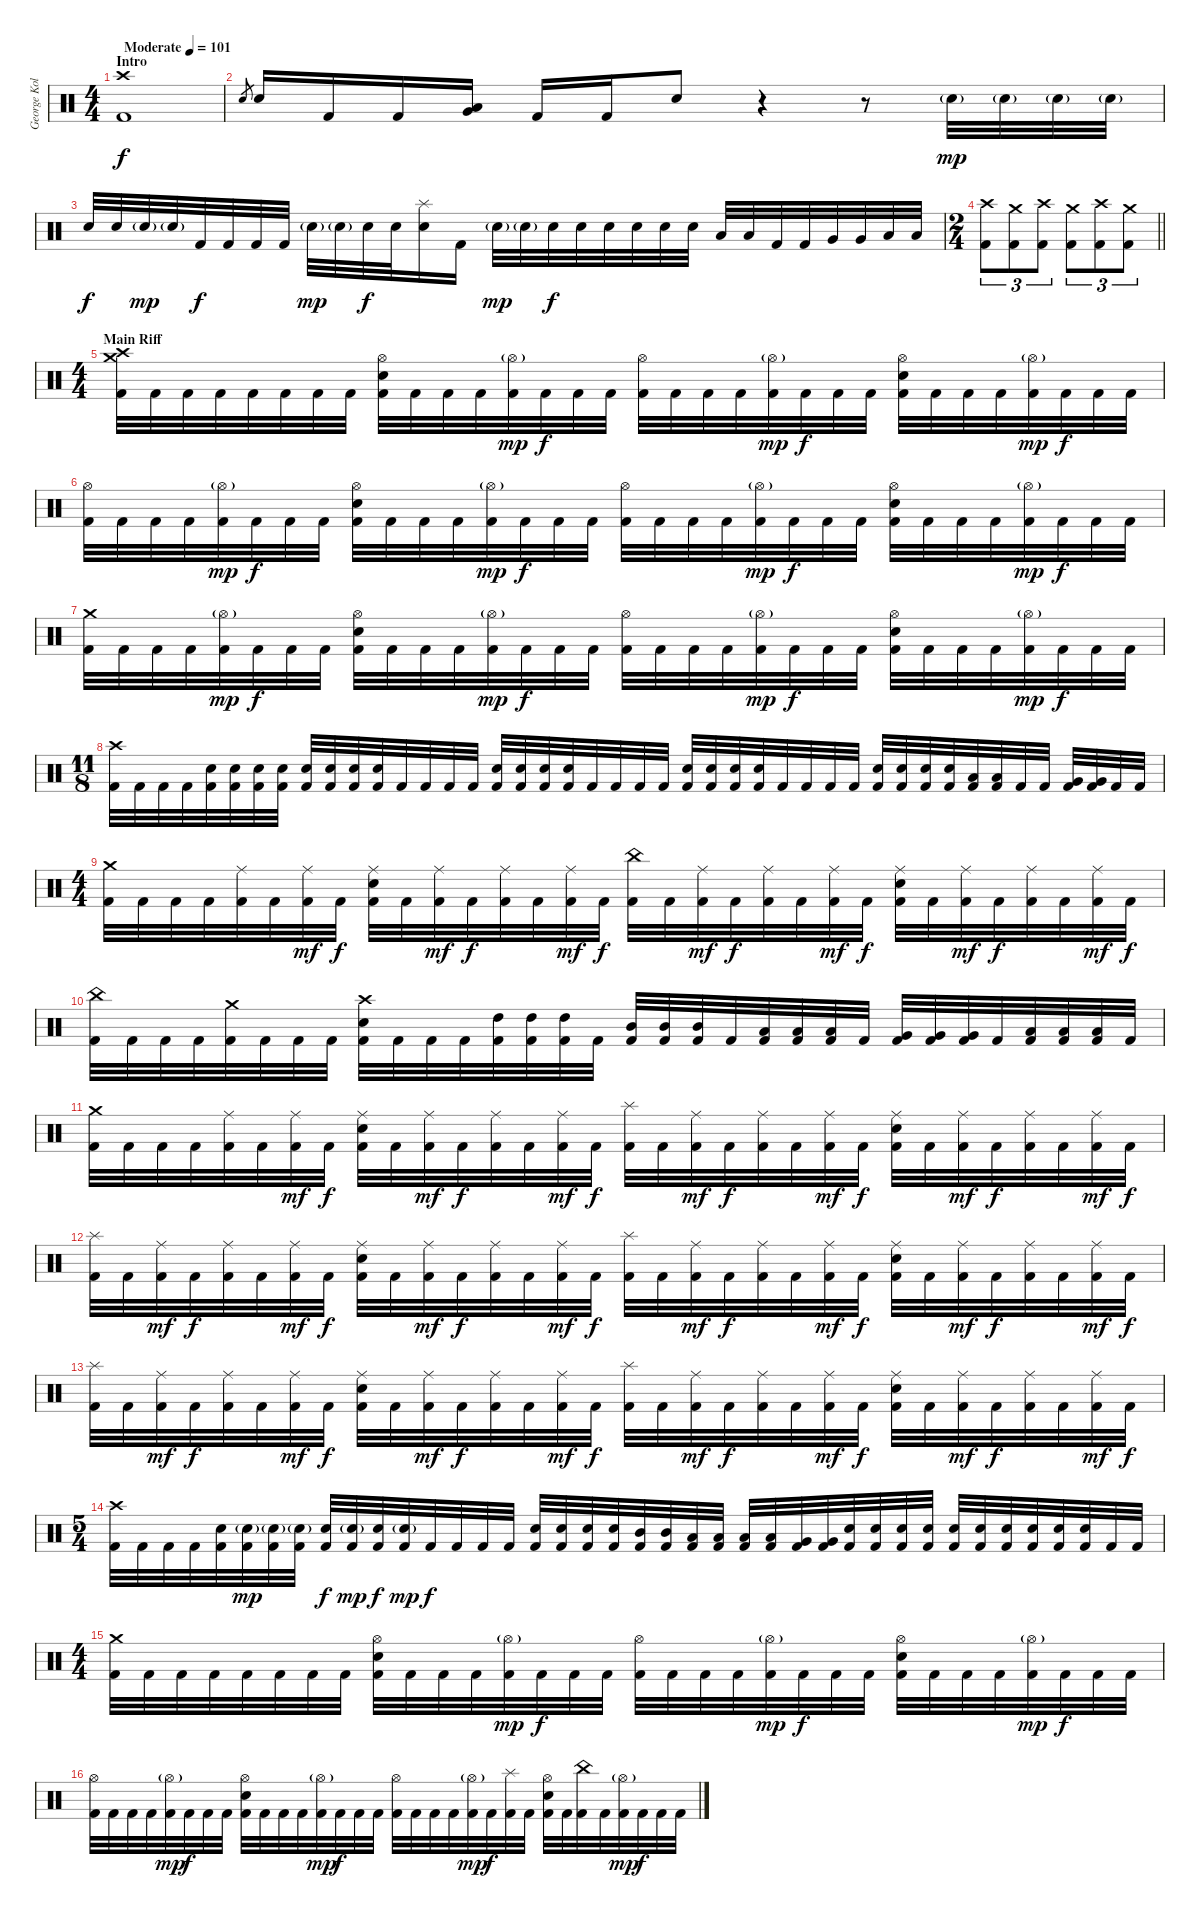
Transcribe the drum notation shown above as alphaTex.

\track ("George Kollias" "George Kol") {instrument percussion}
\staff {score}
\articulation defaults
\ts (4 4)
\section ("" "Intro")
\tempo (101 "Moderate")
\clef neutral
\ks c
("Crash high (hit)" "Kick (hit) 2").1{dy f} |
"Electric Snare (hit)".8{gr} "Electric Snare (hit)".16 "Kick (hit) 2".16 "Kick (hit) 2".16 ("Very Low Tom (hit)" "Low Floor Tom (hit)").16 "Kick (hit) 2".16 "Kick (hit) 2".16 "Electric Snare (hit)".8 r.4 r.8 "Electric Snare (hit)"{g}.32{dy mp} "Electric Snare (hit)"{g}.32 "Electric Snare (hit)"{g}.32 "Electric Snare (hit)"{g}.32 |
"Electric Snare (hit)".32{dy f} "Electric Snare (hit)".32 "Electric Snare (hit)"{g}.32{dy mp} "Electric Snare (hit)"{g}.32 "Kick (hit) 2".32{dy f} "Kick (hit) 2".32 "Kick (hit) 2".32 "Kick (hit) 2".32 "Electric Snare (hit)"{g}.32{dy mp} "Electric Snare (hit)"{g}.32 "Electric Snare (hit)".32{dy f} "Electric Snare (hit)".32 ("Splash (hit)" "Electric Snare (hit)").16 "Kick (hit) 2".16 "Electric Snare (hit)"{g}.32{dy mp} "Electric Snare (hit)"{g}.32 "Electric Snare (hit)".32{dy f} "Electric Snare (hit)".32 "Electric Snare (hit)".32 "Electric Snare (hit)".32 "Electric Snare (hit)".32 "Electric Snare (hit)".32 "Low Tom (hit)".32 "Low Tom (hit)".32 "Kick (hit) 2".32 "Kick (hit) 2".32 "Very Low Tom (hit)".32 "Very Low Tom (hit)".32 "Low Floor Tom (hit)".32 "Low Floor Tom (hit)".32 |
\ts (2 4)
\barLineRight lightlight
("Crash high (hit)" "Kick (hit) 2").8{tu (3 2)} ("Crash medium (hit)" "Kick (hit) 2").8{tu (3 2)} ("Crash high (hit)" "Kick (hit) 2").8{tu (3 2)} ("Crash medium (hit)" "Kick (hit) 2").8{tu (3 2)} ("Crash high (hit)" "Kick (hit) 2").8{tu (3 2)} ("Crash medium (hit)" "Kick (hit) 2").8{tu (3 2)} |
\ts (4 4)
\section ("" "Main Riff")
("Crash medium (hit)" "Crash high (hit)" "Kick (hit) 2").32 "Kick (hit) 2".32 "Kick (hit) 2".32 "Kick (hit) 2".32 "Kick (hit) 2".32 "Kick (hit) 2".32 "Kick (hit) 2".32 "Kick (hit) 2".32 ("Hi-Hat (open)" "Electric Snare (hit)" "Kick (hit) 2").32 "Kick (hit) 2".32 "Kick (hit) 2".32 "Kick (hit) 2".32 ("Hi-Hat (open)"{g} "Kick (hit) 2").32{dy mp} "Kick (hit) 2".32{dy f} "Kick (hit) 2".32 "Kick (hit) 2".32 ("Hi-Hat (open)" "Kick (hit) 2").32 "Kick (hit) 2".32 "Kick (hit) 2".32 "Kick (hit) 2".32 ("Hi-Hat (open)"{g} "Kick (hit) 2").32{dy mp} "Kick (hit) 2".32{dy f} "Kick (hit) 2".32 "Kick (hit) 2".32 ("Hi-Hat (open)" "Electric Snare (hit)" "Kick (hit) 2").32 "Kick (hit) 2".32 "Kick (hit) 2".32 "Kick (hit) 2".32 ("Hi-Hat (open)"{g} "Kick (hit) 2").32{dy mp} "Kick (hit) 2".32{dy f} "Kick (hit) 2".32 "Kick (hit) 2".32 |
("Hi-Hat (open)" "Kick (hit) 2").32 "Kick (hit) 2".32 "Kick (hit) 2".32 "Kick (hit) 2".32 ("Hi-Hat (open)"{g} "Kick (hit) 2").32{dy mp} "Kick (hit) 2".32{dy f} "Kick (hit) 2".32 "Kick (hit) 2".32 ("Hi-Hat (open)" "Electric Snare (hit)" "Kick (hit) 2").32 "Kick (hit) 2".32 "Kick (hit) 2".32 "Kick (hit) 2".32 ("Hi-Hat (open)"{g} "Kick (hit) 2").32{dy mp} "Kick (hit) 2".32{dy f} "Kick (hit) 2".32 "Kick (hit) 2".32 ("Hi-Hat (open)" "Kick (hit) 2").32 "Kick (hit) 2".32 "Kick (hit) 2".32 "Kick (hit) 2".32 ("Hi-Hat (open)"{g} "Kick (hit) 2").32{dy mp} "Kick (hit) 2".32{dy f} "Kick (hit) 2".32 "Kick (hit) 2".32 ("Hi-Hat (open)" "Electric Snare (hit)" "Kick (hit) 2").32 "Kick (hit) 2".32 "Kick (hit) 2".32 "Kick (hit) 2".32 ("Hi-Hat (open)"{g} "Kick (hit) 2").32{dy mp} "Kick (hit) 2".32{dy f} "Kick (hit) 2".32 "Kick (hit) 2".32 |
("Crash medium (hit)" "Kick (hit) 2").32 "Kick (hit) 2".32 "Kick (hit) 2".32 "Kick (hit) 2".32 ("Hi-Hat (open)"{g} "Kick (hit) 2").32{dy mp} "Kick (hit) 2".32{dy f} "Kick (hit) 2".32 "Kick (hit) 2".32 ("Hi-Hat (open)" "Electric Snare (hit)" "Kick (hit) 2").32 "Kick (hit) 2".32 "Kick (hit) 2".32 "Kick (hit) 2".32 ("Hi-Hat (open)"{g} "Kick (hit) 2").32{dy mp} "Kick (hit) 2".32{dy f} "Kick (hit) 2".32 "Kick (hit) 2".32 ("Hi-Hat (open)" "Kick (hit) 2").32 "Kick (hit) 2".32 "Kick (hit) 2".32 "Kick (hit) 2".32 ("Hi-Hat (open)"{g} "Kick (hit) 2").32{dy mp} "Kick (hit) 2".32{dy f} "Kick (hit) 2".32 "Kick (hit) 2".32 ("Hi-Hat (open)" "Electric Snare (hit)" "Kick (hit) 2").32 "Kick (hit) 2".32 "Kick (hit) 2".32 "Kick (hit) 2".32 ("Hi-Hat (open)"{g} "Kick (hit) 2").32{dy mp} "Kick (hit) 2".32{dy f} "Kick (hit) 2".32 "Kick (hit) 2".32 |
\ts (11 8)
("Crash high (hit)" "Kick (hit) 2").32 "Kick (hit) 2".32 "Kick (hit) 2".32 "Kick (hit) 2".32 ("Electric Snare (hit)" "Kick (hit) 2").32 ("Electric Snare (hit)" "Kick (hit) 2").32 ("Electric Snare (hit)" "Kick (hit) 2").32 ("Electric Snare (hit)" "Kick (hit) 2").32 ("Electric Snare (hit)" "Kick (hit) 2").32 ("Electric Snare (hit)" "Kick (hit) 2").32 ("Electric Snare (hit)" "Kick (hit) 2").32 ("Electric Snare (hit)" "Kick (hit) 2").32 "Kick (hit) 2".32 "Kick (hit) 2".32 "Kick (hit) 2".32 "Kick (hit) 2".32 ("Electric Snare (hit)" "Kick (hit) 2").32 ("Electric Snare (hit)" "Kick (hit) 2").32 ("Electric Snare (hit)" "Kick (hit) 2").32 ("Electric Snare (hit)" "Kick (hit) 2").32 "Kick (hit) 2".32 "Kick (hit) 2".32 "Kick (hit) 2".32 "Kick (hit) 2".32 ("Electric Snare (hit)" "Kick (hit) 2").32 ("Electric Snare (hit)" "Kick (hit) 2").32 ("Electric Snare (hit)" "Kick (hit) 2").32 ("Electric Snare (hit)" "Kick (hit) 2").32 "Kick (hit) 2".32 "Kick (hit) 2".32 "Kick (hit) 2".32 "Kick (hit) 2".32 ("Electric Snare (hit)" "Kick (hit) 2").32 ("Electric Snare (hit)" "Kick (hit) 2").32 ("Electric Snare (hit)" "Kick (hit) 2").32 ("Electric Snare (hit)" "Kick (hit) 2").32 ("Low Tom (hit)" "Kick (hit) 2").32 ("Low Tom (hit)" "Kick (hit) 2").32 "Kick (hit) 2".32 "Kick (hit) 2".32 ("Very Low Tom (hit)" "Kick (hit) 2").32 ("Very Low Tom (hit)" "Kick (hit) 2").32 "Kick (hit) 2".32 "Kick (hit) 2".32 |
\ts (4 4)
("Crash medium (hit)" "Kick (hit) 2").32 "Kick (hit) 2".32 "Kick (hit) 2".32 "Kick (hit) 2".32 ("Ride (middle)" "Kick (hit) 2").32 "Kick (hit) 2".32 ("Ride (middle)" "Kick (hit) 2").32{dy mf} "Kick (hit) 2".32{dy f} ("Ride (middle)" "Electric Snare (hit)" "Kick (hit) 2").32 "Kick (hit) 2".32 ("Ride (middle)" "Kick (hit) 2").32{dy mf} "Kick (hit) 2".32{dy f} ("Ride (middle)" "Kick (hit) 2").32 "Kick (hit) 2".32 ("Ride (middle)" "Kick (hit) 2").32{dy mf} "Kick (hit) 2".32{dy f} ("China (hit)" "Kick (hit) 2").32 "Kick (hit) 2".32 ("Ride (middle)" "Kick (hit) 2").32{dy mf} "Kick (hit) 2".32{dy f} ("Ride (middle)" "Kick (hit) 2").32 "Kick (hit) 2".32 ("Ride (middle)" "Kick (hit) 2").32{dy mf} "Kick (hit) 2".32{dy f} ("Ride (middle)" "Electric Snare (hit)" "Kick (hit) 2").32 "Kick (hit) 2".32 ("Ride (middle)" "Kick (hit) 2").32{dy mf} "Kick (hit) 2".32{dy f} ("Ride (middle)" "Kick (hit) 2").32 "Kick (hit) 2".32 ("Ride (middle)" "Kick (hit) 2").32{dy mf} "Kick (hit) 2".32{dy f} |
("China (hit)" "Kick (hit) 2").32 "Kick (hit) 2".32 "Kick (hit) 2".32 "Kick (hit) 2".32 ("Crash medium (hit)" "Kick (hit) 2").32 "Kick (hit) 2".32 "Kick (hit) 2".32 "Kick (hit) 2".32 ("Crash high (hit)" "Electric Snare (hit)" "Kick (hit) 2").32 "Kick (hit) 2".32 "Kick (hit) 2".32 "Kick (hit) 2".32 ("High Tom (hit)" "Kick (hit) 2").32 ("High Tom (hit)" "Kick (hit) 2").32 ("High Tom (hit)" "Kick (hit) 2").32 "Kick (hit) 2".32 ("Mid Tom (hit)" "Kick (hit) 2").32 ("Mid Tom (hit)" "Kick (hit) 2").32 ("Mid Tom (hit)" "Kick (hit) 2").32 "Kick (hit) 2".32 ("Low Tom (hit)" "Kick (hit) 2").32 ("Low Tom (hit)" "Kick (hit) 2").32 ("Low Tom (hit)" "Kick (hit) 2").32 "Kick (hit) 2".32 ("Very Low Tom (hit)" "Kick (hit) 2").32 ("Very Low Tom (hit)" "Kick (hit) 2").32 ("Very Low Tom (hit)" "Kick (hit) 2").32 "Kick (hit) 2".32 ("Low Floor Tom (hit)" "Kick (hit) 2").32 ("Low Floor Tom (hit)" "Kick (hit) 2").32 ("Low Floor Tom (hit)" "Kick (hit) 2").32 "Kick (hit) 2".32 |
("Crash medium (hit)" "Kick (hit) 2").32 "Kick (hit) 2".32 "Kick (hit) 2".32 "Kick (hit) 2".32 ("Ride (middle)" "Kick (hit) 2").32 "Kick (hit) 2".32 ("Ride (middle)" "Kick (hit) 2").32{dy mf} "Kick (hit) 2".32{dy f} ("Ride (middle)" "Electric Snare (hit)" "Kick (hit) 2").32 "Kick (hit) 2".32 ("Ride (middle)" "Kick (hit) 2").32{dy mf} "Kick (hit) 2".32{dy f} ("Ride (middle)" "Kick (hit) 2").32 "Kick (hit) 2".32 ("Ride (middle)" "Kick (hit) 2").32{dy mf} "Kick (hit) 2".32{dy f} ("Splash (hit)" "Kick (hit) 2").32 "Kick (hit) 2".32 ("Ride (middle)" "Kick (hit) 2").32{dy mf} "Kick (hit) 2".32{dy f} ("Ride (middle)" "Kick (hit) 2").32 "Kick (hit) 2".32 ("Ride (middle)" "Kick (hit) 2").32{dy mf} "Kick (hit) 2".32{dy f} ("Ride (middle)" "Electric Snare (hit)" "Kick (hit) 2").32 "Kick (hit) 2".32 ("Ride (middle)" "Kick (hit) 2").32{dy mf} "Kick (hit) 2".32{dy f} ("Ride (middle)" "Kick (hit) 2").32 "Kick (hit) 2".32 ("Ride (middle)" "Kick (hit) 2").32{dy mf} "Kick (hit) 2".32{dy f} |
("Splash (hit)" "Kick (hit) 2").32 "Kick (hit) 2".32 ("Ride (middle)" "Kick (hit) 2").32{dy mf} "Kick (hit) 2".32{dy f} ("Ride (middle)" "Kick (hit) 2").32 "Kick (hit) 2".32 ("Ride (middle)" "Kick (hit) 2").32{dy mf} "Kick (hit) 2".32{dy f} ("Ride (middle)" "Electric Snare (hit)" "Kick (hit) 2").32 "Kick (hit) 2".32 ("Ride (middle)" "Kick (hit) 2").32{dy mf} "Kick (hit) 2".32{dy f} ("Ride (middle)" "Kick (hit) 2").32 "Kick (hit) 2".32 ("Ride (middle)" "Kick (hit) 2").32{dy mf} "Kick (hit) 2".32{dy f} ("Splash (hit)" "Kick (hit) 2").32 "Kick (hit) 2".32 ("Ride (middle)" "Kick (hit) 2").32{dy mf} "Kick (hit) 2".32{dy f} ("Ride (middle)" "Kick (hit) 2").32 "Kick (hit) 2".32 ("Ride (middle)" "Kick (hit) 2").32{dy mf} "Kick (hit) 2".32{dy f} ("Ride (middle)" "Electric Snare (hit)" "Kick (hit) 2").32 "Kick (hit) 2".32 ("Ride (middle)" "Kick (hit) 2").32{dy mf} "Kick (hit) 2".32{dy f} ("Ride (middle)" "Kick (hit) 2").32 "Kick (hit) 2".32 ("Ride (middle)" "Kick (hit) 2").32{dy mf} "Kick (hit) 2".32{dy f} |
("Splash (hit)" "Kick (hit) 2").32 "Kick (hit) 2".32 ("Ride (middle)" "Kick (hit) 2").32{dy mf} "Kick (hit) 2".32{dy f} ("Ride (middle)" "Kick (hit) 2").32 "Kick (hit) 2".32 ("Ride (middle)" "Kick (hit) 2").32{dy mf} "Kick (hit) 2".32{dy f} ("Ride (middle)" "Electric Snare (hit)" "Kick (hit) 2").32 "Kick (hit) 2".32 ("Ride (middle)" "Kick (hit) 2").32{dy mf} "Kick (hit) 2".32{dy f} ("Ride (middle)" "Kick (hit) 2").32 "Kick (hit) 2".32 ("Ride (middle)" "Kick (hit) 2").32{dy mf} "Kick (hit) 2".32{dy f} ("Splash (hit)" "Kick (hit) 2").32 "Kick (hit) 2".32 ("Ride (middle)" "Kick (hit) 2").32{dy mf} "Kick (hit) 2".32{dy f} ("Ride (middle)" "Kick (hit) 2").32 "Kick (hit) 2".32 ("Ride (middle)" "Kick (hit) 2").32{dy mf} "Kick (hit) 2".32{dy f} ("Ride (middle)" "Electric Snare (hit)" "Kick (hit) 2").32 "Kick (hit) 2".32 ("Ride (middle)" "Kick (hit) 2").32{dy mf} "Kick (hit) 2".32{dy f} ("Ride (middle)" "Kick (hit) 2").32 "Kick (hit) 2".32 ("Ride (middle)" "Kick (hit) 2").32{dy mf} "Kick (hit) 2".32{dy f} |
\ts (5 4)
("Crash high (hit)" "Kick (hit) 2").32 "Kick (hit) 2".32 "Kick (hit) 2".32 "Kick (hit) 2".32 ("Electric Snare (hit)" "Kick (hit) 2").32 ("Electric Snare (hit)"{g} "Kick (hit) 2").32{dy mp} ("Electric Snare (hit)"{g} "Kick (hit) 2").32 ("Electric Snare (hit)"{g} "Kick (hit) 2").32 ("Electric Snare (hit)" "Kick (hit) 2").32{dy f} ("Electric Snare (hit)"{g} "Kick (hit) 2").32{dy mp} ("Electric Snare (hit)" "Kick (hit) 2").32{dy f} ("Electric Snare (hit)"{g} "Kick (hit) 2").32{dy mp} "Kick (hit) 2".32{dy f} "Kick (hit) 2".32 "Kick (hit) 2".32 "Kick (hit) 2".32 ("Electric Snare (hit)" "Kick (hit) 2").32 ("Electric Snare (hit)" "Kick (hit) 2").32 ("Electric Snare (hit)" "Kick (hit) 2").32 ("Electric Snare (hit)" "Kick (hit) 2").32 ("Mid Tom (hit)" "Kick (hit) 2").32 ("Mid Tom (hit)" "Kick (hit) 2").32 ("Low Tom (hit)" "Kick (hit) 2").32 ("Low Tom (hit)" "Kick (hit) 2").32 ("Low Tom (hit)" "Kick (hit) 2").32 ("Low Tom (hit)" "Kick (hit) 2").32 ("Very Low Tom (hit)" "Kick (hit) 2").32 ("Very Low Tom (hit)" "Kick (hit) 2").32 ("Electric Snare (hit)" "Kick (hit) 2").32 ("Electric Snare (hit)" "Kick (hit) 2").32 ("Electric Snare (hit)" "Kick (hit) 2").32 ("Electric Snare (hit)" "Kick (hit) 2").32 ("Electric Snare (hit)" "Kick (hit) 2").32 ("Electric Snare (hit)" "Kick (hit) 2").32 ("Electric Snare (hit)" "Kick (hit) 2").32 ("Electric Snare (hit)" "Kick (hit) 2").32 ("Electric Snare (hit)" "Kick (hit) 2").32 ("Electric Snare (hit)" "Kick (hit) 2").32 "Kick (hit) 2".32 "Kick (hit) 2".32 |
\ts (4 4)
("Crash medium (hit)" "Kick (hit) 2").32 "Kick (hit) 2".32 "Kick (hit) 2".32 "Kick (hit) 2".32 "Kick (hit) 2".32 "Kick (hit) 2".32 "Kick (hit) 2".32 "Kick (hit) 2".32 ("Hi-Hat (open)" "Electric Snare (hit)" "Kick (hit) 2").32 "Kick (hit) 2".32 "Kick (hit) 2".32 "Kick (hit) 2".32 ("Hi-Hat (open)"{g} "Kick (hit) 2").32{dy mp} "Kick (hit) 2".32{dy f} "Kick (hit) 2".32 "Kick (hit) 2".32 ("Hi-Hat (open)" "Kick (hit) 2").32 "Kick (hit) 2".32 "Kick (hit) 2".32 "Kick (hit) 2".32 ("Hi-Hat (open)"{g} "Kick (hit) 2").32{dy mp} "Kick (hit) 2".32{dy f} "Kick (hit) 2".32 "Kick (hit) 2".32 ("Hi-Hat (open)" "Electric Snare (hit)" "Kick (hit) 2").32 "Kick (hit) 2".32 "Kick (hit) 2".32 "Kick (hit) 2".32 ("Hi-Hat (open)"{g} "Kick (hit) 2").32{dy mp} "Kick (hit) 2".32{dy f} "Kick (hit) 2".32 "Kick (hit) 2".32 |
("Hi-Hat (open)" "Kick (hit) 2").32 "Kick (hit) 2".32 "Kick (hit) 2".32 "Kick (hit) 2".32 ("Hi-Hat (open)"{g} "Kick (hit) 2").32{dy mp} "Kick (hit) 2".32{dy f} "Kick (hit) 2".32 "Kick (hit) 2".32 ("Hi-Hat (open)" "Electric Snare (hit)" "Kick (hit) 2").32 "Kick (hit) 2".32 "Kick (hit) 2".32 "Kick (hit) 2".32 ("Hi-Hat (open)"{g} "Kick (hit) 2").32{dy mp} "Kick (hit) 2".32{dy f} "Kick (hit) 2".32 "Kick (hit) 2".32 ("Hi-Hat (open)" "Kick (hit) 2").32 "Kick (hit) 2".32 "Kick (hit) 2".32 "Kick (hit) 2".32 ("Hi-Hat (open)"{g} "Kick (hit) 2").32{dy mp} "Kick (hit) 2".32{dy f} ("Splash (hit)" "Kick (hit) 2").32 "Kick (hit) 2".32 ("Hi-Hat (open)" "Electric Snare (hit)" "Kick (hit) 2").32 "Kick (hit) 2".32 ("China (hit)" "Kick (hit) 2").32 "Kick (hit) 2".32 ("Hi-Hat (open)"{g} "Kick (hit) 2").32{dy mp} "Kick (hit) 2".32{dy f} "Kick (hit) 2".32 "Kick (hit) 2".32
